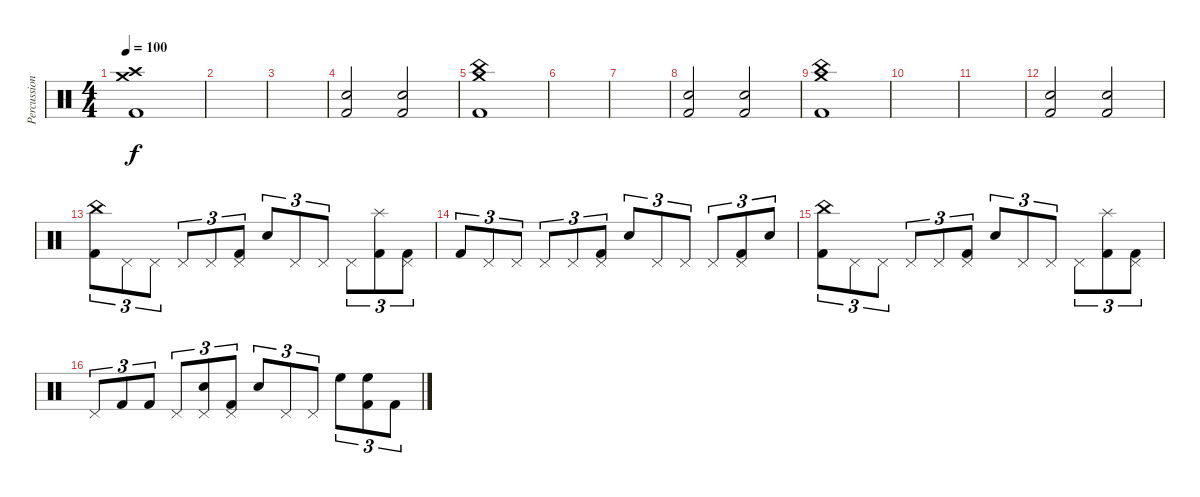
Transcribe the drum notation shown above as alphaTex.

\track ("Percussion" "Percussion") {instrument percussion}
\staff {score}
\articulation defaults
\ts (4 4)
\tempo 100
\clef neutral
\ks c
("Crash medium (hit)" "Crash high (hit)" "Kick (hit) 2").1{dy f} |
|
|
("Electric Snare (hit)" "Kick (hit) 2").2 ("Electric Snare (hit)" "Kick (hit) 2").2 |
("China (hit)" "Crash medium (hit)" "Kick (hit) 2").1 |
|
|
("Electric Snare (hit)" "Kick (hit) 2").2 ("Electric Snare (hit)" "Kick (hit) 2").2 |
("China (hit)" "Crash medium (hit)" "Kick (hit) 2").1 |
|
|
("Electric Snare (hit)" "Kick (hit) 2").2 ("Electric Snare (hit)" "Kick (hit) 2").2 |
("China (hit)" "Kick (hit) 2").8{tu (3 2)} "Pedal Hi-Hat (hit)".8{tu (3 2)} "Pedal Hi-Hat (hit)".8{tu (3 2)} "Pedal Hi-Hat (hit)".8{tu (3 2)} "Pedal Hi-Hat (hit)".8{tu (3 2)} ("Pedal Hi-Hat (hit)" "Kick (hit) 2").8{tu (3 2)} "Electric Snare (hit)".8{tu (3 2)} "Pedal Hi-Hat (hit)".8{tu (3 2)} "Pedal Hi-Hat (hit)".8{tu (3 2)} "Pedal Hi-Hat (hit)".8{tu (3 2)} ("Splash (hit)" "Kick (hit) 2").8{tu (3 2)} ("Pedal Hi-Hat (hit)" "Kick (hit) 2").8{tu (3 2)} |
"Kick (hit) 2".8{tu (3 2)} "Pedal Hi-Hat (hit)".8{tu (3 2)} "Pedal Hi-Hat (hit)".8{tu (3 2)} "Pedal Hi-Hat (hit)".8{tu (3 2)} "Pedal Hi-Hat (hit)".8{tu (3 2)} ("Pedal Hi-Hat (hit)" "Kick (hit) 2").8{tu (3 2)} "Electric Snare (hit)".8{tu (3 2)} "Pedal Hi-Hat (hit)".8{tu (3 2)} "Pedal Hi-Hat (hit)".8{tu (3 2)} "Pedal Hi-Hat (hit)".8{tu (3 2)} ("Pedal Hi-Hat (hit)" "Kick (hit) 2").8{tu (3 2)} "Electric Snare (hit)".8{tu (3 2)} |
("China (hit)" "Kick (hit) 2").8{tu (3 2)} "Pedal Hi-Hat (hit)".8{tu (3 2)} "Pedal Hi-Hat (hit)".8{tu (3 2)} "Pedal Hi-Hat (hit)".8{tu (3 2)} "Pedal Hi-Hat (hit)".8{tu (3 2)} ("Pedal Hi-Hat (hit)" "Kick (hit) 2").8{tu (3 2)} "Electric Snare (hit)".8{tu (3 2)} "Pedal Hi-Hat (hit)".8{tu (3 2)} "Pedal Hi-Hat (hit)".8{tu (3 2)} "Pedal Hi-Hat (hit)".8{tu (3 2)} ("Splash (hit)" "Kick (hit) 2").8{tu (3 2)} ("Pedal Hi-Hat (hit)" "Kick (hit) 2").8{tu (3 2)} |
"Pedal Hi-Hat (hit)".8{tu (3 2)} "Kick (hit) 2".8{tu (3 2)} "Kick (hit) 2".8{tu (3 2)} "Pedal Hi-Hat (hit)".8{tu (3 2)} ("Pedal Hi-Hat (hit)" "Electric Snare (hit)").8{tu (3 2)} ("Pedal Hi-Hat (hit)" "Kick (hit) 2").8{tu (3 2)} "Electric Snare (hit)".8{tu (3 2)} "Pedal Hi-Hat (hit)".8{tu (3 2)} "Pedal Hi-Hat (hit)".8{tu (3 2)} "High Floor Tom (hit)".8{tu (3 2)} ("High Floor Tom (hit)" "Kick (hit) 2").8{tu (3 2)} "Kick (hit) 2".8{tu (3 2)}
